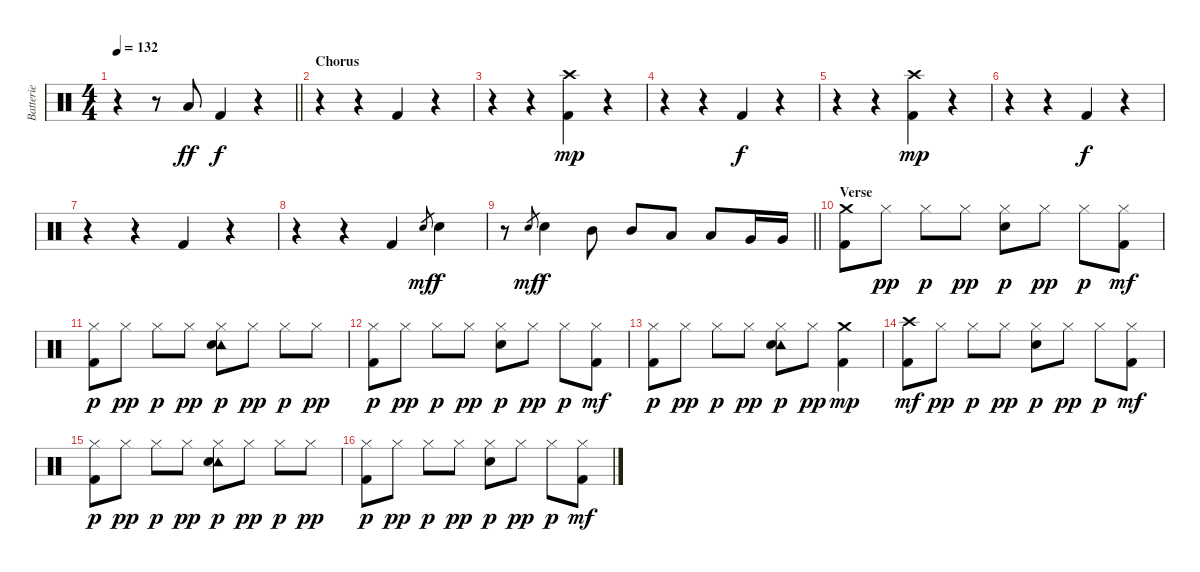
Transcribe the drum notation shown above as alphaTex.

\track ("Batterie" "Batterie") {instrument percussion}
\staff {score}
\articulation defaults
\ts (4 4)
\tempo 132
\clef neutral
\barLineRight lightlight
\ks c
r.4{dy f} r.8 "Low Floor Tom (hit)".8{dy ff} "Kick (hit) 2".4{dy f} r.4 |
\section ("" "Chorus")
r.4 r.4 "Kick (hit) 2".4 r.4 |
r.4 r.4 ("Crash high (hit)" "Kick (hit) 2").4{dy mp} r.4 |
r.4 r.4 "Kick (hit) 2".4{dy f} r.4 |
r.4 r.4 ("Crash high (hit)" "Kick (hit) 2").4{dy mp} r.4 |
r.4 r.4 "Kick (hit) 2".4{dy f} r.4 |
r.4 r.4 "Kick (hit) 2".4 r.4 |
r.4 r.4 "Kick (hit) 2".4 "Electric Snare (hit)".8{gr dy mf} "Electric Snare (hit)".4{dy f} |
\barLineRight lightlight
r.8 "Electric Snare (hit)".8{gr dy mf} "Electric Snare (hit)".4{dy f} "Mid Tom (hit)".8 "Mid Tom (hit)".8 "Low Tom (hit)".8 "Low Tom (hit)".8 "Very Low Tom (hit)".16 "Very Low Tom (hit)".16 |
\section ("" "Verse")
("Crash medium (hit)" "Kick (hit) 2").8 "Hi-Hat (closed)".8{dy pp} "Hi-Hat (closed)".8{dy p} "Hi-Hat (closed)".8{dy pp} ("Hi-Hat (closed)" "Electric Snare (hit)").8{dy p} "Hi-Hat (closed)".8{dy pp} "Hi-Hat (closed)".8{dy p} ("Hi-Hat (closed)" "Kick (hit) 2").8{dy mf} |
("Hi-Hat (closed)" "Kick (hit) 2").8{dy p} "Hi-Hat (closed)".8{dy pp} "Hi-Hat (closed)".8{dy p} "Hi-Hat (closed)".8{dy pp} ("Hi-Hat (closed)" "Tambourine (hit)" "Electric Snare (hit)").8{dy p} "Hi-Hat (closed)".8{dy pp} "Hi-Hat (closed)".8{dy p} "Hi-Hat (closed)".8{dy pp} |
("Hi-Hat (closed)" "Kick (hit) 2").8{dy p} "Hi-Hat (closed)".8{dy pp} "Hi-Hat (closed)".8{dy p} "Hi-Hat (closed)".8{dy pp} ("Hi-Hat (closed)" "Electric Snare (hit)").8{dy p} "Hi-Hat (closed)".8{dy pp} "Hi-Hat (closed)".8{dy p} ("Hi-Hat (closed)" "Kick (hit) 2").8{dy mf} |
("Hi-Hat (closed)" "Kick (hit) 2").8{dy p} "Hi-Hat (closed)".8{dy pp} "Hi-Hat (closed)".8{dy p} "Hi-Hat (closed)".8{dy pp} ("Hi-Hat (closed)" "Tambourine (hit)" "Electric Snare (hit)").8{dy p} "Hi-Hat (closed)".8{dy pp} ("Crash medium (hit)" "Kick (hit) 2").4{dy mp} |
("Crash high (hit)" "Kick (hit) 2").8{dy mf} "Hi-Hat (closed)".8{dy pp} "Hi-Hat (closed)".8{dy p} "Hi-Hat (closed)".8{dy pp} ("Hi-Hat (closed)" "Electric Snare (hit)").8{dy p} "Hi-Hat (closed)".8{dy pp} "Hi-Hat (closed)".8{dy p} ("Hi-Hat (closed)" "Kick (hit) 2").8{dy mf} |
("Hi-Hat (closed)" "Kick (hit) 2").8{dy p} "Hi-Hat (closed)".8{dy pp} "Hi-Hat (closed)".8{dy p} "Hi-Hat (closed)".8{dy pp} ("Hi-Hat (closed)" "Tambourine (hit)" "Electric Snare (hit)").8{dy p} "Hi-Hat (closed)".8{dy pp} "Hi-Hat (closed)".8{dy p} "Hi-Hat (closed)".8{dy pp} |
("Hi-Hat (closed)" "Kick (hit) 2").8{dy p} "Hi-Hat (closed)".8{dy pp} "Hi-Hat (closed)".8{dy p} "Hi-Hat (closed)".8{dy pp} ("Hi-Hat (closed)" "Electric Snare (hit)").8{dy p} "Hi-Hat (closed)".8{dy pp} "Hi-Hat (closed)".8{dy p} ("Hi-Hat (closed)" "Kick (hit) 2").8{dy mf}
